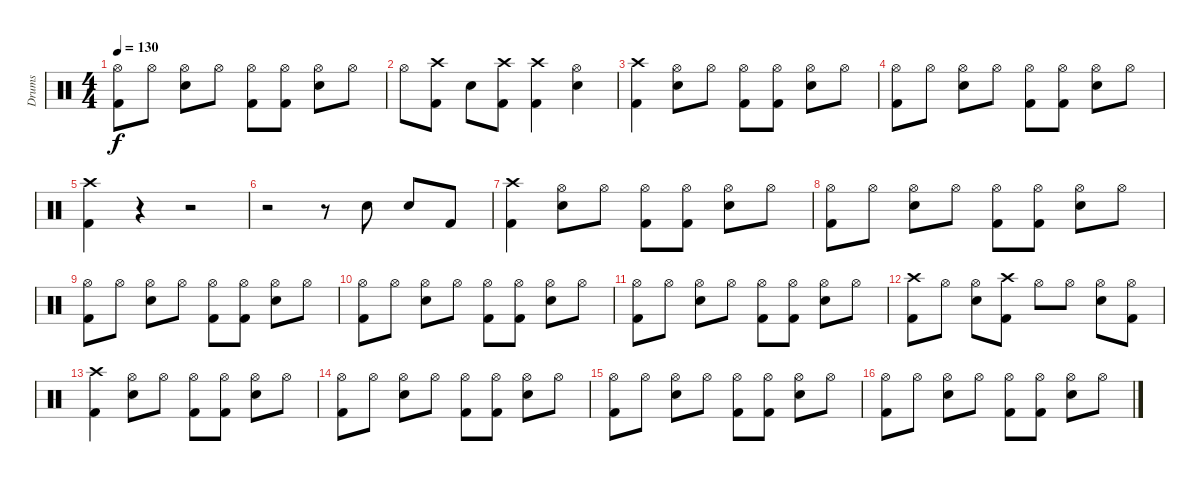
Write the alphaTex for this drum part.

\track ("Drums" "Drums") {instrument percussion}
\staff {score}
\articulation defaults
\ts (4 4)
\tempo 130
\clef neutral
\ks c
("Hi-Hat (open)" "Kick (hit) 2").8{dy f} "Hi-Hat (open)".8 ("Hi-Hat (open)" "Electric Snare (hit)").8 "Hi-Hat (open)".8 ("Hi-Hat (open)" "Kick (hit) 2").8 ("Hi-Hat (open)" "Kick (hit) 2").8 ("Hi-Hat (open)" "Electric Snare (hit)").8 "Hi-Hat (open)".8 |
"Hi-Hat (open)".8 ("Crash high (hit)" "Kick (hit) 2").8 "Electric Snare (hit)".8 ("Crash high (hit)" "Kick (hit) 2").8 ("Crash high (hit)" "Kick (hit) 2").4 ("Hi-Hat (open)" "Electric Snare (hit)").4 |
("Crash high (hit)" "Kick (hit) 2").4 ("Hi-Hat (open)" "Electric Snare (hit)").8 "Hi-Hat (open)".8 ("Hi-Hat (open)" "Kick (hit) 2").8 ("Hi-Hat (open)" "Kick (hit) 2").8 ("Hi-Hat (open)" "Electric Snare (hit)").8 "Hi-Hat (open)".8 |
("Hi-Hat (open)" "Kick (hit) 2").8 "Hi-Hat (open)".8 ("Hi-Hat (open)" "Electric Snare (hit)").8 "Hi-Hat (open)".8 ("Hi-Hat (open)" "Kick (hit) 2").8 ("Hi-Hat (open)" "Kick (hit) 2").8 ("Hi-Hat (open)" "Electric Snare (hit)").8 "Hi-Hat (open)".8 |
("Crash high (hit)" "Kick (hit) 2").4 r.4 r.2 |
r.2 r.8 "Electric Snare (hit)".8 "Electric Snare (hit)".8 "Kick (hit) 2".8 |
("Crash high (hit)" "Kick (hit) 2").4 ("Hi-Hat (open)" "Electric Snare (hit)").8 "Hi-Hat (open)".8 ("Hi-Hat (open)" "Kick (hit) 2").8 ("Hi-Hat (open)" "Kick (hit) 2").8 ("Hi-Hat (open)" "Electric Snare (hit)").8 "Hi-Hat (open)".8 |
("Hi-Hat (open)" "Kick (hit) 2").8 "Hi-Hat (open)".8 ("Hi-Hat (open)" "Electric Snare (hit)").8 "Hi-Hat (open)".8 ("Hi-Hat (open)" "Kick (hit) 2").8 ("Hi-Hat (open)" "Kick (hit) 2").8 ("Hi-Hat (open)" "Electric Snare (hit)").8 "Hi-Hat (open)".8 |
("Hi-Hat (open)" "Kick (hit) 2").8 "Hi-Hat (open)".8 ("Hi-Hat (open)" "Electric Snare (hit)").8 "Hi-Hat (open)".8 ("Hi-Hat (open)" "Kick (hit) 2").8 ("Hi-Hat (open)" "Kick (hit) 2").8 ("Hi-Hat (open)" "Electric Snare (hit)").8 "Hi-Hat (open)".8 |
("Hi-Hat (open)" "Kick (hit) 2").8 "Hi-Hat (open)".8 ("Hi-Hat (open)" "Electric Snare (hit)").8 "Hi-Hat (open)".8 ("Hi-Hat (open)" "Kick (hit) 2").8 ("Hi-Hat (open)" "Kick (hit) 2").8 ("Hi-Hat (open)" "Electric Snare (hit)").8 "Hi-Hat (open)".8 |
("Hi-Hat (open)" "Kick (hit) 2").8 "Hi-Hat (open)".8 ("Hi-Hat (open)" "Electric Snare (hit)").8 "Hi-Hat (open)".8 ("Hi-Hat (open)" "Kick (hit) 2").8 ("Hi-Hat (open)" "Kick (hit) 2").8 ("Hi-Hat (open)" "Electric Snare (hit)").8 "Hi-Hat (open)".8 |
("Crash high (hit)" "Kick (hit) 2").8 "Hi-Hat (open)".8 ("Hi-Hat (open)" "Electric Snare (hit)").8 ("Crash high (hit)" "Kick (hit) 2").8 "Hi-Hat (open)".8 "Hi-Hat (open)".8 ("Hi-Hat (open)" "Electric Snare (hit)").8 ("Hi-Hat (open)" "Kick (hit) 2").8 |
("Crash high (hit)" "Kick (hit) 2").4 ("Hi-Hat (open)" "Electric Snare (hit)").8 "Hi-Hat (open)".8 ("Hi-Hat (open)" "Kick (hit) 2").8 ("Hi-Hat (open)" "Kick (hit) 2").8 ("Hi-Hat (open)" "Electric Snare (hit)").8 "Hi-Hat (open)".8 |
("Hi-Hat (open)" "Kick (hit) 2").8 "Hi-Hat (open)".8 ("Hi-Hat (open)" "Electric Snare (hit)").8 "Hi-Hat (open)".8 ("Hi-Hat (open)" "Kick (hit) 2").8 ("Hi-Hat (open)" "Kick (hit) 2").8 ("Hi-Hat (open)" "Electric Snare (hit)").8 "Hi-Hat (open)".8 |
("Hi-Hat (open)" "Kick (hit) 2").8 "Hi-Hat (open)".8 ("Hi-Hat (open)" "Electric Snare (hit)").8 "Hi-Hat (open)".8 ("Hi-Hat (open)" "Kick (hit) 2").8 ("Hi-Hat (open)" "Kick (hit) 2").8 ("Hi-Hat (open)" "Electric Snare (hit)").8 "Hi-Hat (open)".8 |
("Hi-Hat (open)" "Kick (hit) 2").8 "Hi-Hat (open)".8 ("Hi-Hat (open)" "Electric Snare (hit)").8 "Hi-Hat (open)".8 ("Hi-Hat (open)" "Kick (hit) 2").8 ("Hi-Hat (open)" "Kick (hit) 2").8 ("Hi-Hat (open)" "Electric Snare (hit)").8 "Hi-Hat (open)".8
